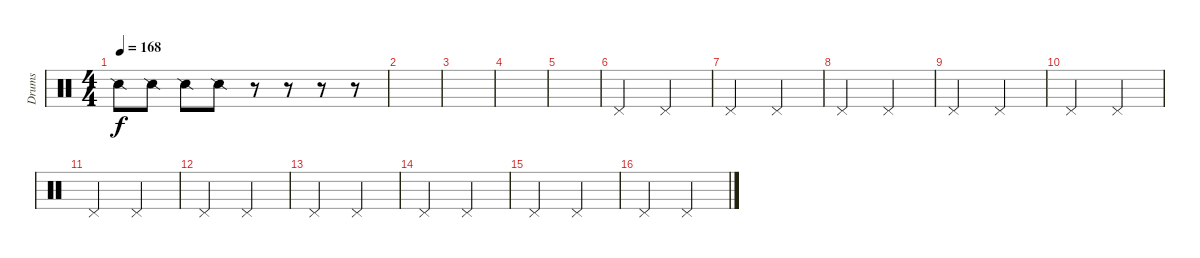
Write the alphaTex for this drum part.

\track ("Drums" "Drums") {instrument percussion}
\staff {score}
\articulation defaults
\ts (4 4)
\tempo 168
\clef neutral
\ks c "Snare (side stick) 2".8{dy f} "Snare (side stick) 2".8 "Snare (side stick) 2".8 "Snare (side stick) 2".8
r.8 r.8 r.8 r.8 |
|
|
|
|
"Pedal Hi-Hat (hit)".2 "Pedal Hi-Hat (hit)".2 |
"Pedal Hi-Hat (hit)".2 "Pedal Hi-Hat (hit)".2 |
"Pedal Hi-Hat (hit)".2 "Pedal Hi-Hat (hit)".2 |
"Pedal Hi-Hat (hit)".2 "Pedal Hi-Hat (hit)".2 |
"Pedal Hi-Hat (hit)".2 "Pedal Hi-Hat (hit)".2 |
"Pedal Hi-Hat (hit)".2 "Pedal Hi-Hat (hit)".2 |
"Pedal Hi-Hat (hit)".2 "Pedal Hi-Hat (hit)".2 |
"Pedal Hi-Hat (hit)".2 "Pedal Hi-Hat (hit)".2 |
"Pedal Hi-Hat (hit)".2 "Pedal Hi-Hat (hit)".2 |
"Pedal Hi-Hat (hit)".2 "Pedal Hi-Hat (hit)".2 |
"Pedal Hi-Hat (hit)".2 "Pedal Hi-Hat (hit)".2
